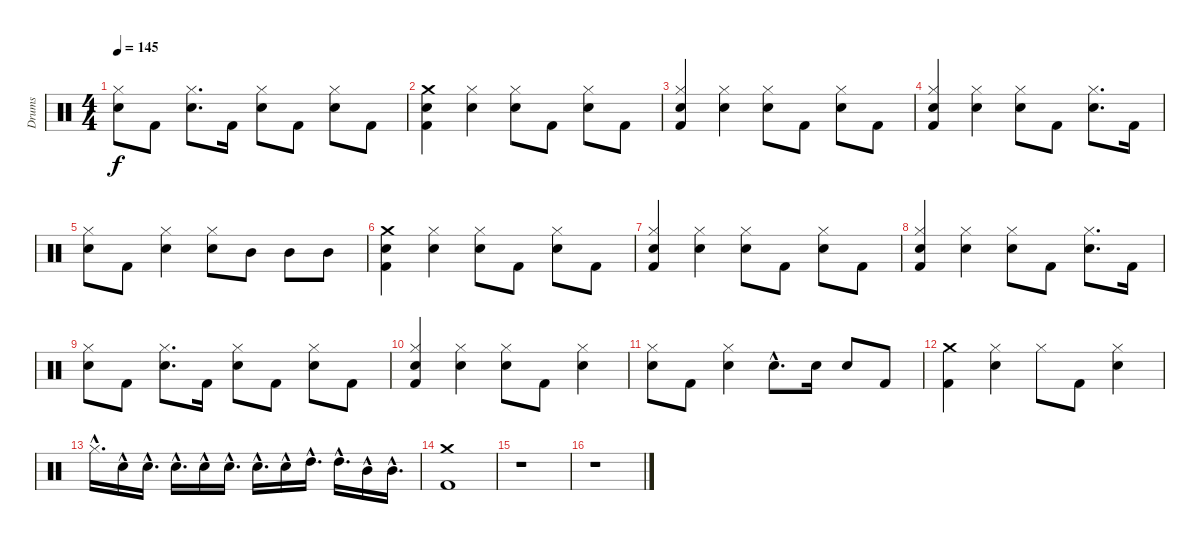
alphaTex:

\track ("Drums" "Drums") {instrument percussion}
\staff {score}
\articulation defaults
\ts (4 4)
\tempo 145
\clef neutral
\ks c
("Snare (hit) 2" "Hi-Hat (closed)").8{dy f} "Kick (hit) 2".8 ("Snare (hit) 2" "Hi-Hat (closed)").8{d} "Kick (hit) 2".16 ("Snare (hit) 2" "Hi-Hat (closed)").8 "Kick (hit) 2".8 ("Snare (hit) 2" "Hi-Hat (closed)").8 "Kick (hit) 2".8 |
("Crash medium (hit)" "Snare (hit) 2" "Kick (hit) 2").4 ("Hi-Hat (closed)" "Snare (hit) 2").4 ("Hi-Hat (closed)" "Snare (hit) 2").8 "Kick (hit) 2".8 ("Hi-Hat (closed)" "Snare (hit) 2").8 "Kick (hit) 2".8 |
("Hi-Hat (closed)" "Snare (hit) 2" "Kick (hit) 2").4 ("Hi-Hat (closed)" "Snare (hit) 2").4 ("Hi-Hat (closed)" "Snare (hit) 2").8 "Kick (hit) 2".8 ("Hi-Hat (closed)" "Snare (hit) 2").8 "Kick (hit) 2".8 |
("Hi-Hat (closed)" "Snare (hit) 2" "Kick (hit) 2").4 ("Hi-Hat (closed)" "Snare (hit) 2").4 ("Hi-Hat (closed)" "Snare (hit) 2").8 "Kick (hit) 2".8 ("Hi-Hat (closed)" "Snare (hit) 2").8{d} "Kick (hit) 2".16 |
("Hi-Hat (closed)" "Snare (hit) 2").8 "Kick (hit) 2".8 ("Hi-Hat (closed)" "Snare (hit) 2").4 ("Hi-Hat (closed)" "Snare (hit) 2").8 "Mid Tom (hit)".8 "Mid Tom (hit)".8 "Mid Tom (hit)".8 |
("Kick (hit) 2" "Crash medium (hit)" "Snare (hit) 2").4 ("Hi-Hat (closed)" "Snare (hit) 2").4 ("Hi-Hat (closed)" "Snare (hit) 2").8 "Kick (hit) 2".8 ("Hi-Hat (closed)" "Snare (hit) 2").8 "Kick (hit) 2".8 |
("Kick (hit) 2" "Hi-Hat (closed)" "Snare (hit) 2").4 ("Hi-Hat (closed)" "Snare (hit) 2").4 ("Hi-Hat (closed)" "Snare (hit) 2").8 "Kick (hit) 2".8 ("Hi-Hat (closed)" "Snare (hit) 2").8 "Kick (hit) 2".8 |
("Hi-Hat (closed)" "Snare (hit) 2" "Kick (hit) 2").4 ("Hi-Hat (closed)" "Snare (hit) 2").4 ("Hi-Hat (closed)" "Snare (hit) 2").8 "Kick (hit) 2".8 ("Hi-Hat (closed)" "Snare (hit) 2").8{d} "Kick (hit) 2".16 |
("Hi-Hat (closed)" "Snare (hit) 2").8 "Kick (hit) 2".8 ("Hi-Hat (closed)" "Snare (hit) 2").8{d} "Kick (hit) 2".16 ("Hi-Hat (closed)" "Snare (hit) 2").8 "Kick (hit) 2".8 ("Hi-Hat (closed)" "Snare (hit) 2").8 "Kick (hit) 2".8 |
("Hi-Hat (closed)" "Snare (hit) 2" "Kick (hit) 2").4 ("Hi-Hat (closed)" "Snare (hit) 2").4 ("Hi-Hat (closed)" "Snare (hit) 2").8 "Kick (hit) 2".8 ("Hi-Hat (closed)" "Snare (hit) 2").4 |
("Hi-Hat (closed)" "Snare (hit) 2").8 "Kick (hit) 2".8 ("Hi-Hat (closed)" "Snare (hit) 2").4 "Snare (hit) 2"{hac}.8{d} "Snare (hit) 2".16 "Snare (hit) 2".8 "Kick (hit) 2".8 |
("Kick (hit) 2" "Crash medium (hit)").4 ("Snare (hit) 2" "Hi-Hat (closed)").4 "Hi-Hat (closed)".8 "Kick (hit) 2".8 ("Electric Snare (hit)" "Hi-Hat (closed)").4 |
"Hi-Hat (closed)"{hac}.16{d} "Snare (hit) 2"{hac}.16 "Snare (hit) 2"{hac}.16{d} "Snare (hit) 2"{hac}.16{d} "Snare (hit) 2"{hac}.16 "Snare (hit) 2"{hac}.16{d} "Snare (hit) 2"{hac}.16{d} "Snare (hit) 2"{hac}.16 "High Tom (hit)"{hac}.16{d} "High Tom (hit)"{hac}.16{d} "Mid Tom (hit)"{hac}.16 "Mid Tom (hit)"{hac}.16{d} |
("Kick (hit) 2" "Crash medium (hit)").1 |
r.1 |
r.1
